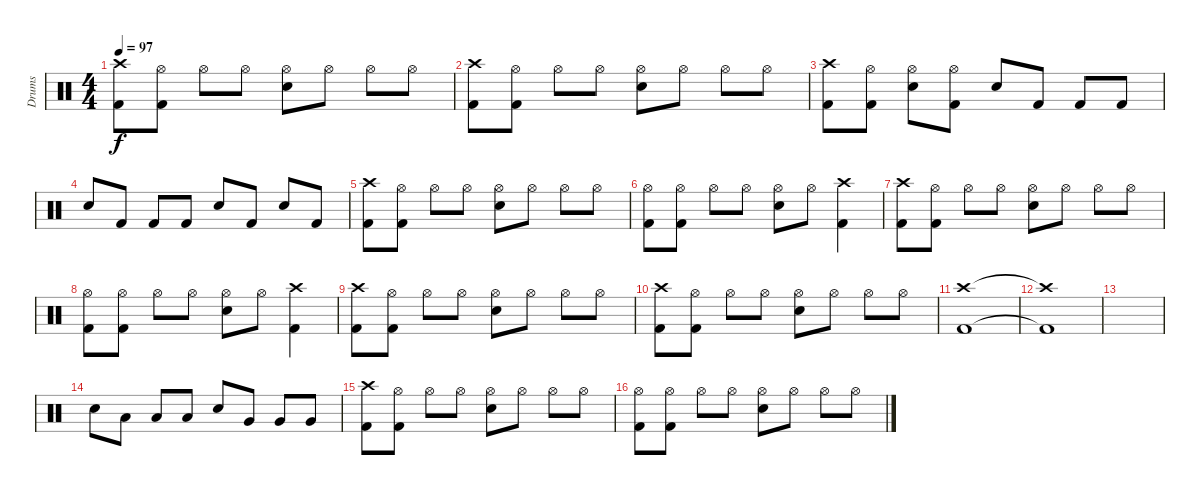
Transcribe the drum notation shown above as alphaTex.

\track ("Drums" "Drums") {solo instrument percussion}
\staff {score}
\articulation defaults
\ts (4 4)
\tempo 97
\clef neutral
\ks c
("Crash high (hit)" "Kick (hit) 2").8{dy f} ("Hi-Hat (open)" "Kick (hit) 2").8 "Hi-Hat (open)".8 "Hi-Hat (open)".8 ("Hi-Hat (open)" "Electric Snare (hit)").8 "Hi-Hat (open)".8 "Hi-Hat (open)".8 "Hi-Hat (open)".8 |
("Crash high (hit)" "Kick (hit) 2").8 ("Hi-Hat (open)" "Kick (hit) 2").8 "Hi-Hat (open)".8 "Hi-Hat (open)".8 ("Hi-Hat (open)" "Electric Snare (hit)").8 "Hi-Hat (open)".8 "Hi-Hat (open)".8 "Hi-Hat (open)".8 |
("Crash high (hit)" "Kick (hit) 2").8 ("Hi-Hat (open)" "Kick (hit) 2").8 ("Hi-Hat (open)" "Electric Snare (hit)").8 ("Hi-Hat (open)" "Kick (hit) 2").8 "Electric Snare (hit)".8 "Kick (hit) 2".8 "Kick (hit) 2".8 "Kick (hit) 2".8 |
"Electric Snare (hit)".8 "Kick (hit) 2".8 "Kick (hit) 2".8 "Kick (hit) 2".8 "Electric Snare (hit)".8 "Kick (hit) 2".8 "Electric Snare (hit)".8 "Kick (hit) 2".8 |
("Crash high (hit)" "Kick (hit) 2").8 ("Hi-Hat (open)" "Kick (hit) 2").8 "Hi-Hat (open)".8 "Hi-Hat (open)".8 ("Hi-Hat (open)" "Electric Snare (hit)").8 "Hi-Hat (open)".8 "Hi-Hat (open)".8 "Hi-Hat (open)".8 |
("Hi-Hat (open)" "Kick (hit) 2").8 ("Hi-Hat (open)" "Kick (hit) 2").8 "Hi-Hat (open)".8 "Hi-Hat (open)".8 ("Hi-Hat (open)" "Electric Snare (hit)").8 "Hi-Hat (open)".8 ("Crash high (hit)" "Kick (hit) 2").4 |
("Crash high (hit)" "Kick (hit) 2").8 ("Hi-Hat (open)" "Kick (hit) 2").8 "Hi-Hat (open)".8 "Hi-Hat (open)".8 ("Hi-Hat (open)" "Electric Snare (hit)").8 "Hi-Hat (open)".8 "Hi-Hat (open)".8 "Hi-Hat (open)".8 |
("Hi-Hat (open)" "Kick (hit) 2").8 ("Hi-Hat (open)" "Kick (hit) 2").8 "Hi-Hat (open)".8 "Hi-Hat (open)".8 ("Hi-Hat (open)" "Electric Snare (hit)").8 "Hi-Hat (open)".8 ("Crash high (hit)" "Kick (hit) 2").4 |
("Crash high (hit)" "Kick (hit) 2").8 ("Hi-Hat (open)" "Kick (hit) 2").8 "Hi-Hat (open)".8 "Hi-Hat (open)".8 ("Hi-Hat (open)" "Electric Snare (hit)").8 "Hi-Hat (open)".8 "Hi-Hat (open)".8 "Hi-Hat (open)".8 |
("Crash high (hit)" "Kick (hit) 2").8 ("Hi-Hat (open)" "Kick (hit) 2").8 "Hi-Hat (open)".8 "Hi-Hat (open)".8 ("Hi-Hat (open)" "Electric Snare (hit)").8 "Hi-Hat (open)".8 "Hi-Hat (open)".8 "Hi-Hat (open)".8 |
("Crash high (hit)" "Kick (hit) 2").1 |
("Crash high (hit)"{t} "Kick (hit) 2"{t}).1 |
|
"Electric Snare (hit)".8 "Low Floor Tom (hit)".8 "Low Floor Tom (hit)".8 "Low Floor Tom (hit)".8 "Electric Snare (hit)".8 "Very Low Tom (hit)".8 "Very Low Tom (hit)".8 "Very Low Tom (hit)".8 |
("Crash high (hit)" "Kick (hit) 2").8 ("Hi-Hat (open)" "Kick (hit) 2").8 "Hi-Hat (open)".8 "Hi-Hat (open)".8 ("Hi-Hat (open)" "Electric Snare (hit)").8 "Hi-Hat (open)".8 "Hi-Hat (open)".8 "Hi-Hat (open)".8 |
("Hi-Hat (open)" "Kick (hit) 2").8 ("Hi-Hat (open)" "Kick (hit) 2").8 "Hi-Hat (open)".8 "Hi-Hat (open)".8 ("Hi-Hat (open)" "Electric Snare (hit)").8 "Hi-Hat (open)".8 "Hi-Hat (open)".8 "Hi-Hat (open)".8
